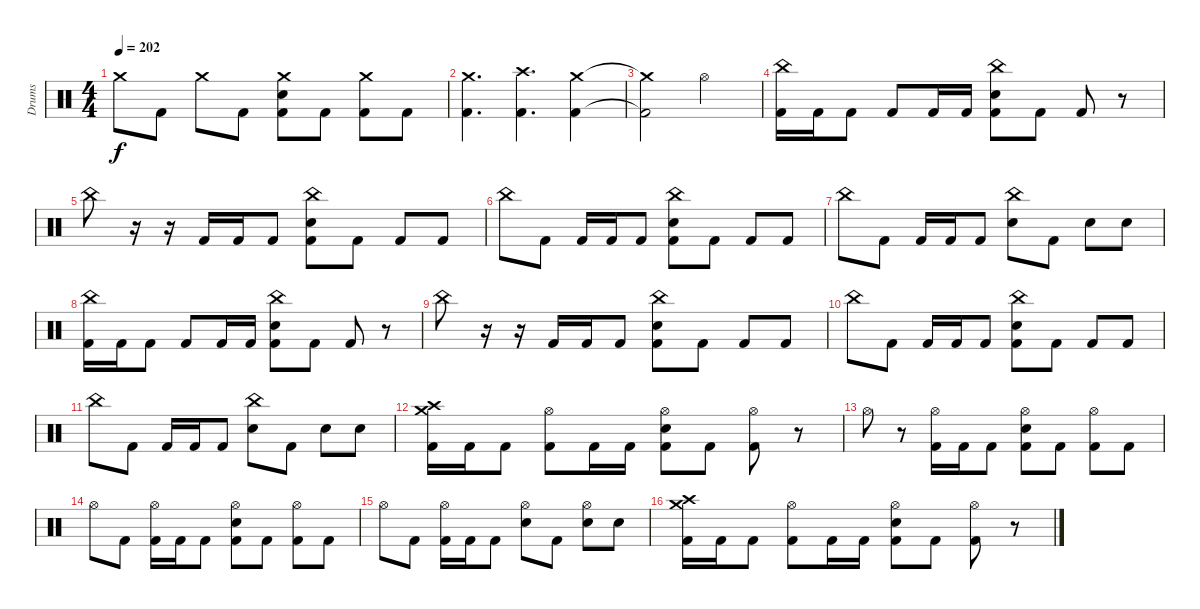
\track ("Drums" "Drums") {instrument percussion}
\staff {score}
\articulation defaults
\ts (4 4)
\tempo 202
\clef neutral
\ks c "Crash medium (hit)".8{dy f} "Kick (hit) 2".8 "Crash medium (hit)".8 "Kick (hit) 2".8
("Crash medium (hit)" "Electric Snare (hit)" "Kick (hit) 2").8 "Kick (hit) 2".8 ("Crash medium (hit)" "Kick (hit) 2").8 "Kick (hit) 2".8 |
("Crash medium (hit)" "Kick (hit) 2").4{d} ("Crash high (hit)" "Kick (hit) 2").4{d} ("Crash medium (hit)" "Kick (hit) 2").4 |
("Crash medium (hit)"{t} "Kick (hit) 2"{t}).2 "Hi-Hat (open)".2 |
("China (hit)" "Kick (hit) 2").16 "Kick (hit) 2".16 "Kick (hit) 2".8 "Kick (hit) 2".8 "Kick (hit) 2".16 "Kick (hit) 2".16 ("China (hit)" "Electric Snare (hit)" "Kick (hit) 2").8 "Kick (hit) 2".8 "Kick (hit) 2".8 r.8 |
"China (hit)".8 r.16 r.16 "Kick (hit) 2".16 "Kick (hit) 2".16 "Kick (hit) 2".8 ("China (hit)" "Electric Snare (hit)" "Kick (hit) 2").8 "Kick (hit) 2".8 "Kick (hit) 2".8 "Kick (hit) 2".8 |
"China (hit)".8 "Kick (hit) 2".8 "Kick (hit) 2".16 "Kick (hit) 2".16 "Kick (hit) 2".8 ("China (hit)" "Electric Snare (hit)" "Kick (hit) 2").8 "Kick (hit) 2".8 "Kick (hit) 2".8 "Kick (hit) 2".8 |
"China (hit)".8 "Kick (hit) 2".8 "Kick (hit) 2".16 "Kick (hit) 2".16 "Kick (hit) 2".8 ("China (hit)" "Electric Snare (hit)").8 "Kick (hit) 2".8 "Electric Snare (hit)".8 "Electric Snare (hit)".8 |
("China (hit)" "Kick (hit) 2").16 "Kick (hit) 2".16 "Kick (hit) 2".8 "Kick (hit) 2".8 "Kick (hit) 2".16 "Kick (hit) 2".16 ("China (hit)" "Electric Snare (hit)" "Kick (hit) 2").8 "Kick (hit) 2".8 "Kick (hit) 2".8 r.8 |
"China (hit)".8 r.16 r.16 "Kick (hit) 2".16 "Kick (hit) 2".16 "Kick (hit) 2".8 ("China (hit)" "Electric Snare (hit)" "Kick (hit) 2").8 "Kick (hit) 2".8 "Kick (hit) 2".8 "Kick (hit) 2".8 |
"China (hit)".8 "Kick (hit) 2".8 "Kick (hit) 2".16 "Kick (hit) 2".16 "Kick (hit) 2".8 ("China (hit)" "Electric Snare (hit)" "Kick (hit) 2").8 "Kick (hit) 2".8 "Kick (hit) 2".8 "Kick (hit) 2".8 |
"China (hit)".8 "Kick (hit) 2".8 "Kick (hit) 2".16 "Kick (hit) 2".16 "Kick (hit) 2".8 ("China (hit)" "Electric Snare (hit)").8 "Kick (hit) 2".8 "Electric Snare (hit)".8 "Electric Snare (hit)".8 |
("Crash medium (hit)" "Crash high (hit)" "Kick (hit) 2").16 "Kick (hit) 2".16 "Kick (hit) 2".8 ("Hi-Hat (open)" "Kick (hit) 2").8 "Kick (hit) 2".16 "Kick (hit) 2".16 ("Hi-Hat (open)" "Electric Snare (hit)" "Kick (hit) 2").8 "Kick (hit) 2".8 ("Hi-Hat (open)" "Kick (hit) 2").8 r.8 |
"Hi-Hat (open)".8 r.8 ("Hi-Hat (open)" "Kick (hit) 2").16 "Kick (hit) 2".16 "Kick (hit) 2".8 ("Hi-Hat (open)" "Electric Snare (hit)" "Kick (hit) 2").8 "Kick (hit) 2".8 ("Hi-Hat (open)" "Kick (hit) 2").8 "Kick (hit) 2".8 |
"Hi-Hat (open)".8 "Kick (hit) 2".8 ("Hi-Hat (open)" "Kick (hit) 2").16 "Kick (hit) 2".16 "Kick (hit) 2".8 ("Hi-Hat (open)" "Electric Snare (hit)" "Kick (hit) 2").8 "Kick (hit) 2".8 ("Hi-Hat (open)" "Kick (hit) 2").8 "Kick (hit) 2".8 |
"Hi-Hat (open)".8 "Kick (hit) 2".8 ("Hi-Hat (open)" "Kick (hit) 2").16 "Kick (hit) 2".16 "Kick (hit) 2".8 ("Hi-Hat (open)" "Electric Snare (hit)").8 "Kick (hit) 2".8 ("Hi-Hat (open)" "Electric Snare (hit)").8 "Electric Snare (hit)".8 |
("Crash medium (hit)" "Crash high (hit)" "Kick (hit) 2").16 "Kick (hit) 2".16 "Kick (hit) 2".8 ("Hi-Hat (open)" "Kick (hit) 2").8 "Kick (hit) 2".16 "Kick (hit) 2".16 ("Hi-Hat (open)" "Electric Snare (hit)" "Kick (hit) 2").8 "Kick (hit) 2".8 ("Hi-Hat (open)" "Kick (hit) 2").8 r.8
